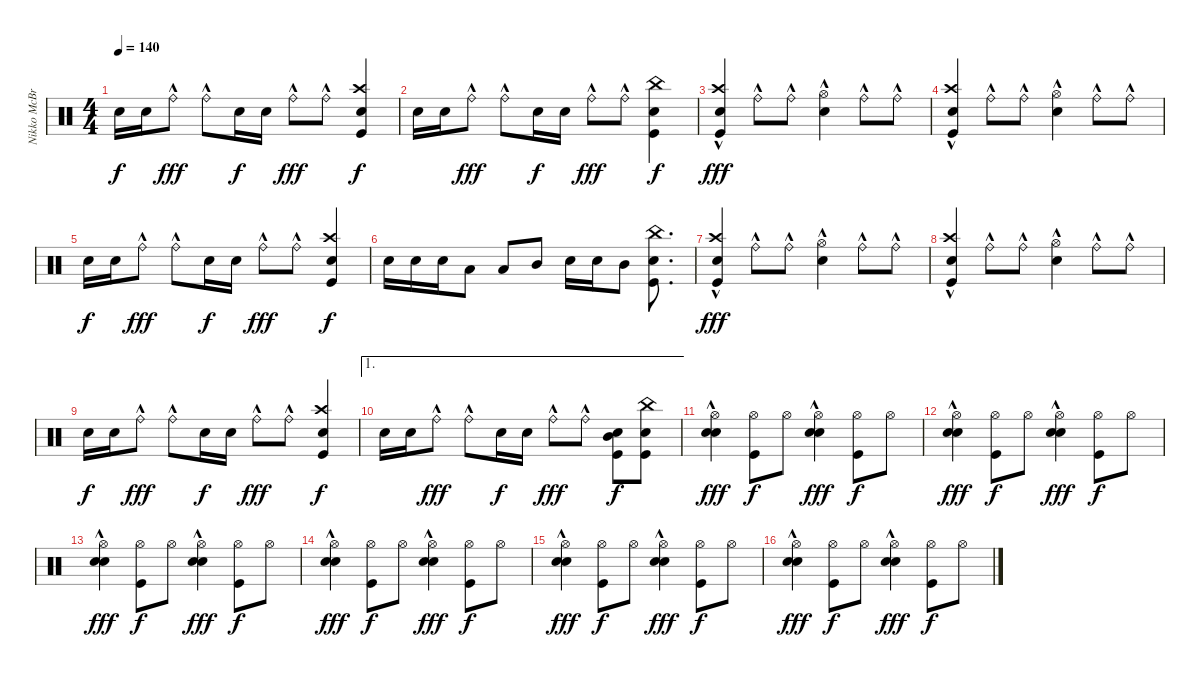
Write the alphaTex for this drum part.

\track ("Nikko McBrain" "Nikko McBr") {instrument percussion}
\staff {score}
\articulation defaults
\ts (4 4)
\tempo 140
\clef neutral
\ks c "Snare (hit) 2".16{dy f} "Snare (hit) 2".16 "Ride (bell)"{hac}.8{dy fff} "Ride (bell)"{hac}.8 "Snare (hit) 2".16{dy f} "Snare (hit) 2".16 "Ride (bell)"{hac}.8{dy fff} "Ride (bell)"{hac}.8
("Crash high (hit)" "Kick (hit)" "Snare (hit) 2").4{dy f} |
"Snare (hit) 2".16 "Snare (hit) 2".16 "Ride (bell)"{hac}.8{dy fff} "Ride (bell)"{hac}.8 "Snare (hit) 2".16{dy f} "Snare (hit) 2".16 "Ride (bell)"{hac}.8{dy fff} "Ride (bell)"{hac}.8 ("China (hit)" "Kick (hit)" "Snare (hit) 2").4{dy f} |
("Crash high (hit)"{hac} "Kick (hit)"{hac} "Snare (hit) 2"{hac}).4{dy fff} "Ride (bell)"{hac}.8 "Ride (bell)"{hac}.8 ("Hi-Hat (open)" "Snare (hit) 2"{hac}).4 "Ride (bell)"{hac}.8 "Ride (bell)"{hac}.8 |
("Crash high (hit)"{hac} "Kick (hit)"{hac} "Snare (hit) 2"{hac}).4 "Ride (bell)"{hac}.8 "Ride (bell)"{hac}.8 ("Hi-Hat (open)" "Snare (hit) 2"{hac}).4 "Ride (bell)"{hac}.8 "Ride (bell)"{hac}.8 |
"Snare (hit) 2".16{dy f} "Snare (hit) 2".16 "Ride (bell)"{hac}.8{dy fff} "Ride (bell)"{hac}.8 "Snare (hit) 2".16{dy f} "Snare (hit) 2".16 "Ride (bell)"{hac}.8{dy fff} "Ride (bell)"{hac}.8 ("Crash high (hit)" "Kick (hit)" "Snare (hit) 2").4{dy f} |
"Snare (hit) 2".16 "Snare (hit) 2".16 "Snare (hit) 2".16 "Low Floor Tom (hit)".8 "Low Floor Tom (hit)".8 "Mid Tom (hit)".8 "Snare (hit) 2".16 "Snare (hit) 2".16 "Mid Tom (hit)".8 ("China (hit)" "Snare (hit) 2" "Kick (hit)").8{d} |
("Crash high (hit)"{hac} "Kick (hit)"{hac} "Snare (hit) 2"{hac}).4{dy fff} "Ride (bell)"{hac}.8 "Ride (bell)"{hac}.8 ("Hi-Hat (open)" "Snare (hit) 2"{hac}).4 "Ride (bell)"{hac}.8 "Ride (bell)"{hac}.8 |
("Crash high (hit)"{hac} "Kick (hit)"{hac} "Snare (hit) 2"{hac}).4 "Ride (bell)"{hac}.8 "Ride (bell)"{hac}.8 ("Hi-Hat (open)" "Snare (hit) 2"{hac}).4 "Ride (bell)"{hac}.8 "Ride (bell)"{hac}.8 |
"Snare (hit) 2".16{dy f} "Snare (hit) 2".16 "Ride (bell)"{hac}.8{dy fff} "Ride (bell)"{hac}.8 "Snare (hit) 2".16{dy f} "Snare (hit) 2".16 "Ride (bell)"{hac}.8{dy fff} "Ride (bell)"{hac}.8 ("Crash high (hit)" "Kick (hit)" "Snare (hit) 2").4{dy f} |
\ae 1 "Snare (hit) 2".16 "Snare (hit) 2".16 "Ride (bell)"{hac}.8{dy fff} "Ride (bell)"{hac}.8 "Snare (hit) 2".16{dy f} "Snare (hit) 2".16 "Ride (bell)"{hac}.8{dy fff} "Ride (bell)"{hac}.8
("Mid Tom (hit)" "Kick (hit)" "Snare (hit) 2").8{dy f} ("China (hit)" "Kick (hit)" "Snare (hit) 2").8 |
("Hi-Hat (open)" "Snare (hit) 2"{hac} "Snare (hit) 2"{hac}).4{dy fff} ("Hi-Hat (open)" "Kick (hit)").8{dy f} "Hi-Hat (open)".8 ("Hi-Hat (open)" "Snare (hit) 2"{hac} "Snare (hit) 2"{hac}).4{dy fff} ("Hi-Hat (open)" "Kick (hit)").8{dy f} "Hi-Hat (open)".8 |
("Hi-Hat (open)" "Snare (hit) 2"{hac} "Snare (hit) 2"{hac}).4{dy fff} ("Hi-Hat (open)" "Kick (hit)").8{dy f} "Hi-Hat (open)".8 ("Hi-Hat (open)" "Snare (hit) 2"{hac} "Snare (hit) 2"{hac}).4{dy fff} ("Hi-Hat (open)" "Kick (hit)").8{dy f} "Hi-Hat (open)".8 |
("Hi-Hat (open)" "Snare (hit) 2"{hac} "Snare (hit) 2"{hac}).4{dy fff} ("Hi-Hat (open)" "Kick (hit)").8{dy f} "Hi-Hat (open)".8 ("Hi-Hat (open)" "Snare (hit) 2"{hac} "Snare (hit) 2"{hac}).4{dy fff} ("Hi-Hat (open)" "Kick (hit)").8{dy f} "Hi-Hat (open)".8 |
("Hi-Hat (open)" "Snare (hit) 2"{hac} "Snare (hit) 2"{hac}).4{dy fff} ("Hi-Hat (open)" "Kick (hit)").8{dy f} "Hi-Hat (open)".8 ("Hi-Hat (open)" "Snare (hit) 2"{hac} "Snare (hit) 2"{hac}).4{dy fff} ("Hi-Hat (open)" "Kick (hit)").8{dy f} "Hi-Hat (open)".8 |
("Hi-Hat (open)" "Snare (hit) 2"{hac} "Snare (hit) 2"{hac}).4{dy fff} ("Hi-Hat (open)" "Kick (hit)").8{dy f} "Hi-Hat (open)".8 ("Hi-Hat (open)" "Snare (hit) 2"{hac} "Snare (hit) 2"{hac}).4{dy fff} ("Hi-Hat (open)" "Kick (hit)").8{dy f} "Hi-Hat (open)".8 |
("Hi-Hat (open)" "Snare (hit) 2"{hac} "Snare (hit) 2"{hac}).4{dy fff} ("Hi-Hat (open)" "Kick (hit)").8{dy f} "Hi-Hat (open)".8 ("Hi-Hat (open)" "Snare (hit) 2"{hac} "Snare (hit) 2"{hac}).4{dy fff} ("Hi-Hat (open)" "Kick (hit)").8{dy f} "Hi-Hat (open)".8
